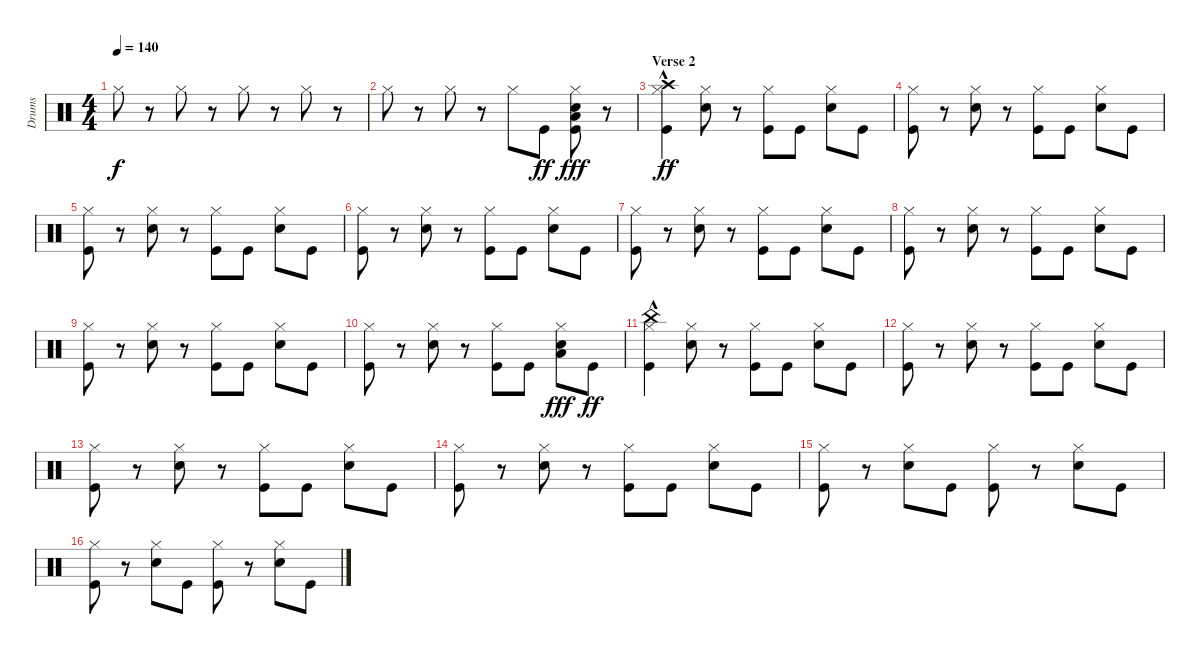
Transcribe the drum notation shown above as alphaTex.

\track ("Drums" "Drums") {instrument percussion}
\staff {score}
\articulation defaults
\ts (4 4)
\tempo 140
\clef neutral
\ks c "Hi-Hat (closed)".8{dy f}
r.8 "Hi-Hat (closed)".8 r.8 "Hi-Hat (closed)".8 r.8 "Hi-Hat (closed)".8 r.8 |
"Hi-Hat (closed)".8 r.8 "Hi-Hat (closed)".8 r.8 "Hi-Hat (closed)".8 "Kick (hit)".8{dy ff} ("Kick (hit)" "Snare (hit) 2" "Low Floor Tom (hit)" "Hi-Hat (closed)").8{dy fff} r.8 |
\section ("" "Verse 2")
("Crash high (hit)"{hac} "Hi-Hat (closed)" "Kick (hit)").4{dy ff} ("Hi-Hat (closed)" "Snare (hit) 2").8 r.8 ("Hi-Hat (closed)" "Kick (hit)").8 "Kick (hit)".8 ("Hi-Hat (closed)" "Snare (hit) 2").8 "Kick (hit)".8 |
("Hi-Hat (closed)" "Kick (hit)").8 r.8 ("Hi-Hat (closed)" "Snare (hit) 2").8 r.8 ("Hi-Hat (closed)" "Kick (hit)").8 "Kick (hit)".8 ("Hi-Hat (closed)" "Snare (hit) 2").8 "Kick (hit)".8 |
("Hi-Hat (closed)" "Kick (hit)").8 r.8 ("Hi-Hat (closed)" "Snare (hit) 2").8 r.8 ("Hi-Hat (closed)" "Kick (hit)").8 "Kick (hit)".8 ("Hi-Hat (closed)" "Snare (hit) 2").8 "Kick (hit)".8 |
("Hi-Hat (closed)" "Kick (hit)").8 r.8 ("Hi-Hat (closed)" "Snare (hit) 2").8 r.8 ("Hi-Hat (closed)" "Kick (hit)").8 "Kick (hit)".8 ("Hi-Hat (closed)" "Snare (hit) 2").8 "Kick (hit)".8 |
("Kick (hit)" "Hi-Hat (closed)").8 r.8 ("Hi-Hat (closed)" "Snare (hit) 2").8 r.8 ("Kick (hit)" "Hi-Hat (closed)").8 "Kick (hit)".8 ("Hi-Hat (closed)" "Snare (hit) 2").8 "Kick (hit)".8 |
("Hi-Hat (closed)" "Kick (hit)").8 r.8 ("Hi-Hat (closed)" "Snare (hit) 2").8 r.8 ("Hi-Hat (closed)" "Kick (hit)").8 "Kick (hit)".8 ("Hi-Hat (closed)" "Snare (hit) 2").8 "Kick (hit)".8 |
("Hi-Hat (closed)" "Kick (hit)").8 r.8 ("Hi-Hat (closed)" "Snare (hit) 2").8 r.8 ("Hi-Hat (closed)" "Kick (hit)").8 "Kick (hit)".8 ("Hi-Hat (closed)" "Snare (hit) 2").8 "Kick (hit)".8 |
("Hi-Hat (closed)" "Kick (hit)").8 r.8 ("Hi-Hat (closed)" "Snare (hit) 2").8 r.8 ("Hi-Hat (closed)" "Kick (hit)").8 "Kick (hit)".8 ("Snare (hit) 2" "Hi-Hat (closed)" "Low Floor Tom (hit)").8{dy fff} "Kick (hit)".8{dy ff} |
("China (hit)"{hac} "Hi-Hat (closed)" "Kick (hit)").4 ("Hi-Hat (closed)" "Snare (hit) 2").8 r.8 ("Hi-Hat (closed)" "Kick (hit)").8 "Kick (hit)".8 ("Hi-Hat (closed)" "Snare (hit) 2").8 "Kick (hit)".8 |
("Hi-Hat (closed)" "Kick (hit)").8 r.8 ("Hi-Hat (closed)" "Snare (hit) 2").8 r.8 ("Hi-Hat (closed)" "Kick (hit)").8 "Kick (hit)".8 ("Hi-Hat (closed)" "Snare (hit) 2").8 "Kick (hit)".8 |
("Hi-Hat (closed)" "Kick (hit)").8 r.8 ("Hi-Hat (closed)" "Snare (hit) 2").8 r.8 ("Hi-Hat (closed)" "Kick (hit)").8 "Kick (hit)".8 ("Hi-Hat (closed)" "Snare (hit) 2").8 "Kick (hit)".8 |
("Hi-Hat (closed)" "Kick (hit)").8 r.8 ("Hi-Hat (closed)" "Snare (hit) 2").8 r.8 ("Hi-Hat (closed)" "Kick (hit)").8 "Kick (hit)".8 ("Hi-Hat (closed)" "Snare (hit) 2").8 "Kick (hit)".8 |
("Kick (hit)" "Hi-Hat (closed)").8 r.8 ("Hi-Hat (closed)" "Snare (hit) 2").8 "Kick (hit)".8 ("Hi-Hat (closed)" "Kick (hit)").8 r.8 ("Hi-Hat (closed)" "Snare (hit) 2").8 "Kick (hit)".8 |
("Hi-Hat (closed)" "Kick (hit)").8 r.8 ("Hi-Hat (closed)" "Snare (hit) 2").8 "Kick (hit)".8 ("Hi-Hat (closed)" "Kick (hit)").8 r.8 ("Hi-Hat (closed)" "Snare (hit) 2").8 "Kick (hit)".8
